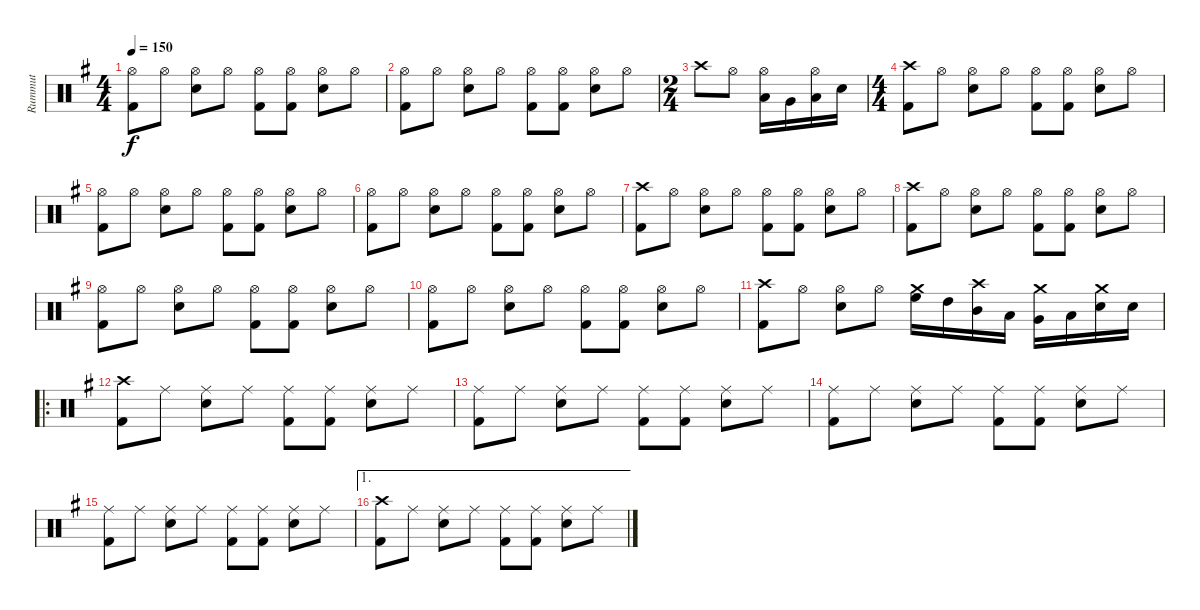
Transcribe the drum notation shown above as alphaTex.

\track ("Rummut" "Rummut") {instrument percussion}
\staff {score}
\articulation defaults
\ts (4 4)
\tempo 150
\clef neutral
\ks g
("Hi-Hat (open)" "Kick (hit) 2").8{dy f} "Hi-Hat (open)".8 ("Hi-Hat (open)" "Electric Snare (hit)").8 "Hi-Hat (open)".8 ("Hi-Hat (open)" "Kick (hit) 2").8 ("Hi-Hat (open)" "Kick (hit) 2").8 ("Hi-Hat (open)" "Electric Snare (hit)").8 "Hi-Hat (open)".8 |
("Hi-Hat (open)" "Kick (hit) 2").8 "Hi-Hat (open)".8 ("Hi-Hat (open)" "Electric Snare (hit)").8 "Hi-Hat (open)".8 ("Hi-Hat (open)" "Kick (hit) 2").8 ("Hi-Hat (open)" "Kick (hit) 2").8 ("Hi-Hat (open)" "Electric Snare (hit)").8 "Hi-Hat (open)".8 |
\ts (2 4)
"Crash high (hit)".8 "Hi-Hat (open)".8 ("Hi-Hat (open)" "Low Tom (hit)").16 "Very Low Tom (hit)".16 ("Hi-Hat (open)" "Low Floor Tom (hit)").16 "Electric Snare (hit)".16 |
\ts (4 4)
("Crash high (hit)" "Kick (hit) 2").8 "Hi-Hat (open)".8 ("Hi-Hat (open)" "Electric Snare (hit)").8 "Hi-Hat (open)".8 ("Hi-Hat (open)" "Kick (hit) 2").8 ("Hi-Hat (open)" "Kick (hit) 2").8 ("Hi-Hat (open)" "Electric Snare (hit)").8 "Hi-Hat (open)".8 |
("Hi-Hat (open)" "Kick (hit) 2").8 "Hi-Hat (open)".8 ("Hi-Hat (open)" "Electric Snare (hit)").8 "Hi-Hat (open)".8 ("Hi-Hat (open)" "Kick (hit) 2").8 ("Hi-Hat (open)" "Kick (hit) 2").8 ("Hi-Hat (open)" "Electric Snare (hit)").8 "Hi-Hat (open)".8 |
("Hi-Hat (open)" "Kick (hit) 2").8 "Hi-Hat (open)".8 ("Hi-Hat (open)" "Electric Snare (hit)").8 "Hi-Hat (open)".8 ("Hi-Hat (open)" "Kick (hit) 2").8 ("Hi-Hat (open)" "Kick (hit) 2").8 ("Hi-Hat (open)" "Electric Snare (hit)").8 "Hi-Hat (open)".8 |
("Crash high (hit)" "Kick (hit) 2").8 "Hi-Hat (open)".8 ("Hi-Hat (open)" "Electric Snare (hit)").8 "Hi-Hat (open)".8 ("Hi-Hat (open)" "Kick (hit) 2").8 ("Hi-Hat (open)" "Kick (hit) 2").8 ("Hi-Hat (open)" "Electric Snare (hit)").8 "Hi-Hat (open)".8 |
("Crash high (hit)" "Kick (hit) 2").8 "Hi-Hat (open)".8 ("Hi-Hat (open)" "Electric Snare (hit)").8 "Hi-Hat (open)".8 ("Hi-Hat (open)" "Kick (hit) 2").8 ("Hi-Hat (open)" "Kick (hit) 2").8 ("Hi-Hat (open)" "Electric Snare (hit)").8 "Hi-Hat (open)".8 |
("Hi-Hat (open)" "Kick (hit) 2").8 "Hi-Hat (open)".8 ("Hi-Hat (open)" "Electric Snare (hit)").8 "Hi-Hat (open)".8 ("Hi-Hat (open)" "Kick (hit) 2").8 ("Hi-Hat (open)" "Kick (hit) 2").8 ("Hi-Hat (open)" "Electric Snare (hit)").8 "Hi-Hat (open)".8 |
("Hi-Hat (open)" "Kick (hit) 2").8 "Hi-Hat (open)".8 ("Hi-Hat (open)" "Electric Snare (hit)").8 "Hi-Hat (open)".8 ("Hi-Hat (open)" "Kick (hit) 2").8 ("Hi-Hat (open)" "Kick (hit) 2").8 ("Hi-Hat (open)" "Electric Snare (hit)").8 "Hi-Hat (open)".8 |
("Crash high (hit)" "Kick (hit) 2").8 "Hi-Hat (open)".8 ("Hi-Hat (open)" "Electric Snare (hit)").8 "Hi-Hat (open)".8 ("Crash medium (hit)" "High Floor Tom (hit)").16 "High Tom (hit)".16 ("Crash high (hit)" "Mid Tom (hit)").16 "Low Tom (hit)".16 ("Crash medium (hit)" "Very Low Tom (hit)").16 "Low Floor Tom (hit)".16 ("Crash medium (hit)" "Electric Snare (hit)").16 "Electric Snare (hit)".16 |
\ro
("Crash high (hit)" "Kick (hit) 2").8 "Ride (middle)".8 ("Ride (middle)" "Electric Snare (hit)").8 "Ride (middle)".8 ("Ride (middle)" "Kick (hit) 2").8 ("Ride (middle)" "Kick (hit) 2").8 ("Ride (middle)" "Electric Snare (hit)").8 "Ride (middle)".8 |
("Ride (middle)" "Kick (hit) 2").8 "Ride (middle)".8 ("Ride (middle)" "Electric Snare (hit)").8 "Ride (middle)".8 ("Ride (middle)" "Kick (hit) 2").8 ("Ride (middle)" "Kick (hit) 2").8 ("Ride (middle)" "Electric Snare (hit)").8 "Ride (middle)".8 |
("Ride (middle)" "Kick (hit) 2").8 "Ride (middle)".8 ("Ride (middle)" "Electric Snare (hit)").8 "Ride (middle)".8 ("Ride (middle)" "Kick (hit) 2").8 ("Ride (middle)" "Kick (hit) 2").8 ("Ride (middle)" "Electric Snare (hit)").8 "Ride (middle)".8 |
("Ride (middle)" "Kick (hit) 2").8 "Ride (middle)".8 ("Ride (middle)" "Electric Snare (hit)").8 "Ride (middle)".8 ("Ride (middle)" "Kick (hit) 2").8 ("Ride (middle)" "Kick (hit) 2").8 ("Ride (middle)" "Electric Snare (hit)").8 "Ride (middle)".8 |
\ae 1
("Crash high (hit)" "Kick (hit) 2").8 "Ride (middle)".8 ("Ride (middle)" "Electric Snare (hit)").8 "Ride (middle)".8 ("Ride (middle)" "Kick (hit) 2").8 ("Ride (middle)" "Kick (hit) 2").8 ("Ride (middle)" "Electric Snare (hit)").8 "Ride (middle)".8
